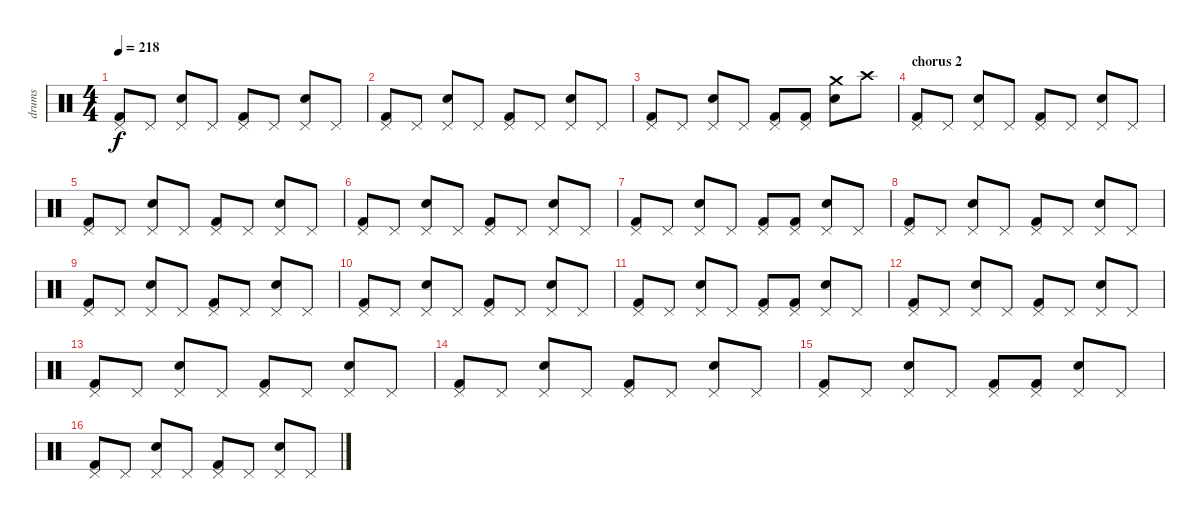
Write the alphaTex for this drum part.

\track ("drums" "drums") {instrument percussion}
\staff {score}
\articulation defaults
\ts (4 4)
\tempo 218
\clef neutral
\ks c
("Kick (hit) 2" "Pedal Hi-Hat (hit)").8{dy f} "Pedal Hi-Hat (hit)".8 ("Snare (hit) 2" "Pedal Hi-Hat (hit)").8 "Pedal Hi-Hat (hit)".8 ("Kick (hit) 2" "Pedal Hi-Hat (hit)").8 "Pedal Hi-Hat (hit)".8 ("Snare (hit) 2" "Pedal Hi-Hat (hit)").8 "Pedal Hi-Hat (hit)".8 |
("Kick (hit) 2" "Pedal Hi-Hat (hit)").8 "Pedal Hi-Hat (hit)".8 ("Snare (hit) 2" "Pedal Hi-Hat (hit)").8 "Pedal Hi-Hat (hit)".8 ("Kick (hit) 2" "Pedal Hi-Hat (hit)").8 "Pedal Hi-Hat (hit)".8 ("Snare (hit) 2" "Pedal Hi-Hat (hit)").8 "Pedal Hi-Hat (hit)".8 |
("Kick (hit) 2" "Pedal Hi-Hat (hit)").8 "Pedal Hi-Hat (hit)".8 ("Snare (hit) 2" "Pedal Hi-Hat (hit)").8 "Pedal Hi-Hat (hit)".8 ("Kick (hit) 2" "Pedal Hi-Hat (hit)").8 ("Kick (hit) 2" "Pedal Hi-Hat (hit)").8 ("Snare (hit) 2" "Crash medium (hit)").8 "Crash high (hit)".8 |
\section ("" "chorus 2")
("Kick (hit) 2" "Pedal Hi-Hat (hit)").8 "Pedal Hi-Hat (hit)".8 ("Snare (hit) 2" "Pedal Hi-Hat (hit)").8 "Pedal Hi-Hat (hit)".8 ("Kick (hit) 2" "Pedal Hi-Hat (hit)").8 "Pedal Hi-Hat (hit)".8 ("Snare (hit) 2" "Pedal Hi-Hat (hit)").8 "Pedal Hi-Hat (hit)".8 |
("Kick (hit) 2" "Pedal Hi-Hat (hit)").8 "Pedal Hi-Hat (hit)".8 ("Snare (hit) 2" "Pedal Hi-Hat (hit)").8 "Pedal Hi-Hat (hit)".8 ("Kick (hit) 2" "Pedal Hi-Hat (hit)").8 "Pedal Hi-Hat (hit)".8 ("Snare (hit) 2" "Pedal Hi-Hat (hit)").8 "Pedal Hi-Hat (hit)".8 |
("Kick (hit) 2" "Pedal Hi-Hat (hit)").8 "Pedal Hi-Hat (hit)".8 ("Snare (hit) 2" "Pedal Hi-Hat (hit)").8 "Pedal Hi-Hat (hit)".8 ("Kick (hit) 2" "Pedal Hi-Hat (hit)").8 "Pedal Hi-Hat (hit)".8 ("Snare (hit) 2" "Pedal Hi-Hat (hit)").8 "Pedal Hi-Hat (hit)".8 |
("Kick (hit) 2" "Pedal Hi-Hat (hit)").8 "Pedal Hi-Hat (hit)".8 ("Snare (hit) 2" "Pedal Hi-Hat (hit)").8 "Pedal Hi-Hat (hit)".8 ("Kick (hit) 2" "Pedal Hi-Hat (hit)").8 ("Kick (hit) 2" "Pedal Hi-Hat (hit)").8 ("Snare (hit) 2" "Pedal Hi-Hat (hit)").8 "Pedal Hi-Hat (hit)".8 |
("Kick (hit) 2" "Pedal Hi-Hat (hit)").8 "Pedal Hi-Hat (hit)".8 ("Snare (hit) 2" "Pedal Hi-Hat (hit)").8 "Pedal Hi-Hat (hit)".8 ("Kick (hit) 2" "Pedal Hi-Hat (hit)").8 "Pedal Hi-Hat (hit)".8 ("Snare (hit) 2" "Pedal Hi-Hat (hit)").8 "Pedal Hi-Hat (hit)".8 |
("Kick (hit) 2" "Pedal Hi-Hat (hit)").8 "Pedal Hi-Hat (hit)".8 ("Snare (hit) 2" "Pedal Hi-Hat (hit)").8 "Pedal Hi-Hat (hit)".8 ("Kick (hit) 2" "Pedal Hi-Hat (hit)").8 "Pedal Hi-Hat (hit)".8 ("Snare (hit) 2" "Pedal Hi-Hat (hit)").8 "Pedal Hi-Hat (hit)".8 |
("Kick (hit) 2" "Pedal Hi-Hat (hit)").8 "Pedal Hi-Hat (hit)".8 ("Snare (hit) 2" "Pedal Hi-Hat (hit)").8 "Pedal Hi-Hat (hit)".8 ("Kick (hit) 2" "Pedal Hi-Hat (hit)").8 "Pedal Hi-Hat (hit)".8 ("Snare (hit) 2" "Pedal Hi-Hat (hit)").8 "Pedal Hi-Hat (hit)".8 |
("Kick (hit) 2" "Pedal Hi-Hat (hit)").8 "Pedal Hi-Hat (hit)".8 ("Snare (hit) 2" "Pedal Hi-Hat (hit)").8 "Pedal Hi-Hat (hit)".8 ("Kick (hit) 2" "Pedal Hi-Hat (hit)").8 ("Kick (hit) 2" "Pedal Hi-Hat (hit)").8 ("Snare (hit) 2" "Pedal Hi-Hat (hit)").8 "Pedal Hi-Hat (hit)".8 |
("Kick (hit) 2" "Pedal Hi-Hat (hit)").8 "Pedal Hi-Hat (hit)".8 ("Snare (hit) 2" "Pedal Hi-Hat (hit)").8 "Pedal Hi-Hat (hit)".8 ("Kick (hit) 2" "Pedal Hi-Hat (hit)").8 "Pedal Hi-Hat (hit)".8 ("Snare (hit) 2" "Pedal Hi-Hat (hit)").8 "Pedal Hi-Hat (hit)".8 |
("Kick (hit) 2" "Pedal Hi-Hat (hit)").8 "Pedal Hi-Hat (hit)".8 ("Snare (hit) 2" "Pedal Hi-Hat (hit)").8 "Pedal Hi-Hat (hit)".8 ("Kick (hit) 2" "Pedal Hi-Hat (hit)").8 "Pedal Hi-Hat (hit)".8 ("Snare (hit) 2" "Pedal Hi-Hat (hit)").8 "Pedal Hi-Hat (hit)".8 |
("Kick (hit) 2" "Pedal Hi-Hat (hit)").8 "Pedal Hi-Hat (hit)".8 ("Snare (hit) 2" "Pedal Hi-Hat (hit)").8 "Pedal Hi-Hat (hit)".8 ("Kick (hit) 2" "Pedal Hi-Hat (hit)").8 "Pedal Hi-Hat (hit)".8 ("Snare (hit) 2" "Pedal Hi-Hat (hit)").8 "Pedal Hi-Hat (hit)".8 |
("Kick (hit) 2" "Pedal Hi-Hat (hit)").8 "Pedal Hi-Hat (hit)".8 ("Snare (hit) 2" "Pedal Hi-Hat (hit)").8 "Pedal Hi-Hat (hit)".8 ("Kick (hit) 2" "Pedal Hi-Hat (hit)").8 ("Kick (hit) 2" "Pedal Hi-Hat (hit)").8 ("Snare (hit) 2" "Pedal Hi-Hat (hit)").8 "Pedal Hi-Hat (hit)".8 |
("Kick (hit) 2" "Pedal Hi-Hat (hit)").8 "Pedal Hi-Hat (hit)".8 ("Snare (hit) 2" "Pedal Hi-Hat (hit)").8 "Pedal Hi-Hat (hit)".8 ("Kick (hit) 2" "Pedal Hi-Hat (hit)").8 "Pedal Hi-Hat (hit)".8 ("Snare (hit) 2" "Pedal Hi-Hat (hit)").8 "Pedal Hi-Hat (hit)".8
